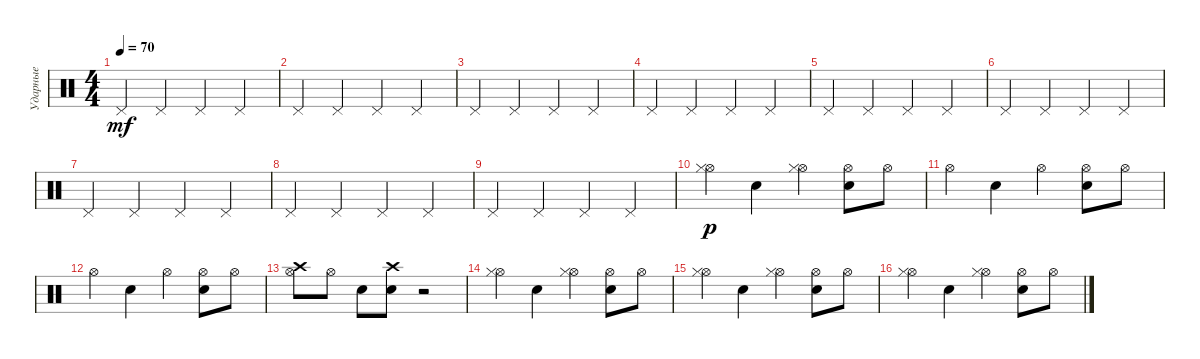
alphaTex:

\track ("Ударные" "Ударные") {instrument percussion}
\staff {score}
\articulation defaults
\ts (4 4)
\tempo 70
\clef neutral
\ks c "Pedal Hi-Hat (hit)".4{dy mf} "Pedal Hi-Hat (hit)".4 "Pedal Hi-Hat (hit)".4 "Pedal Hi-Hat (hit)".4
|
"Pedal Hi-Hat (hit)".4 "Pedal Hi-Hat (hit)".4 "Pedal Hi-Hat (hit)".4 "Pedal Hi-Hat (hit)".4 |
"Pedal Hi-Hat (hit)".4 "Pedal Hi-Hat (hit)".4 "Pedal Hi-Hat (hit)".4 "Pedal Hi-Hat (hit)".4 |
"Pedal Hi-Hat (hit)".4 "Pedal Hi-Hat (hit)".4 "Pedal Hi-Hat (hit)".4 "Pedal Hi-Hat (hit)".4 |
"Pedal Hi-Hat (hit)".4 "Pedal Hi-Hat (hit)".4 "Pedal Hi-Hat (hit)".4 "Pedal Hi-Hat (hit)".4 |
"Pedal Hi-Hat (hit)".4 "Pedal Hi-Hat (hit)".4 "Pedal Hi-Hat (hit)".4 "Pedal Hi-Hat (hit)".4 |
"Pedal Hi-Hat (hit)".4 "Pedal Hi-Hat (hit)".4 "Pedal Hi-Hat (hit)".4 "Pedal Hi-Hat (hit)".4 |
"Pedal Hi-Hat (hit)".4 "Pedal Hi-Hat (hit)".4 "Pedal Hi-Hat (hit)".4 "Pedal Hi-Hat (hit)".4 |
"Pedal Hi-Hat (hit)".4 "Pedal Hi-Hat (hit)".4 "Pedal Hi-Hat (hit)".4 "Pedal Hi-Hat (hit)".4 |
("Hi-Hat (open)" "Hi-Hat (closed)").4{dy p} "Electric Snare (hit)".4 ("Hi-Hat (open)" "Hi-Hat (closed)").4 ("Hi-Hat (open)" "Electric Snare (hit)").8 "Hi-Hat (open)".8 |
"Hi-Hat (open)".4 "Electric Snare (hit)".4 "Hi-Hat (open)".4 ("Hi-Hat (open)" "Electric Snare (hit)").8 "Hi-Hat (open)".8 |
"Hi-Hat (open)".4 "Electric Snare (hit)".4 "Hi-Hat (open)".4 ("Hi-Hat (open)" "Electric Snare (hit)").8 "Hi-Hat (open)".8 |
("Hi-Hat (open)" "Crash high (hit)").8 "Hi-Hat (open)".8 "Electric Snare (hit)".8 ("Crash high (hit)" "Electric Snare (hit)").8 r.2 |
("Hi-Hat (open)" "Hi-Hat (closed)").4 "Electric Snare (hit)".4 ("Hi-Hat (open)" "Hi-Hat (closed)").4 ("Hi-Hat (open)" "Electric Snare (hit)").8 "Hi-Hat (open)".8 |
("Hi-Hat (open)" "Hi-Hat (closed)").4 "Electric Snare (hit)".4 ("Hi-Hat (open)" "Hi-Hat (closed)").4 ("Hi-Hat (open)" "Electric Snare (hit)").8 "Hi-Hat (open)".8 |
("Hi-Hat (open)" "Hi-Hat (closed)").4 "Electric Snare (hit)".4 ("Hi-Hat (open)" "Hi-Hat (closed)").4 ("Hi-Hat (open)" "Electric Snare (hit)").8 "Hi-Hat (open)".8
